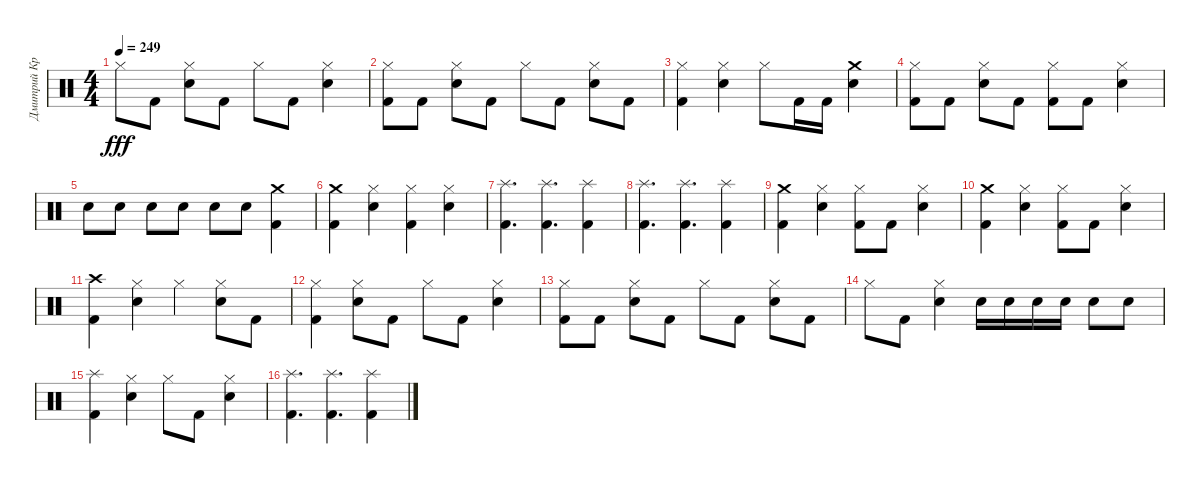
\track ("Дмитрий Кривенков" "Дмитрий Кр") {instrument percussion}
\staff {score}
\articulation defaults
\ts (4 4)
\tempo 249
\clef neutral
\ks c "Hi-Hat (closed)".8{dy fff} "Kick (hit) 2".8
("Electric Snare (hit)" "Hi-Hat (closed)").8 "Kick (hit) 2".8 "Hi-Hat (closed)".8 "Kick (hit) 2".8 ("Electric Snare (hit)" "Hi-Hat (closed)").4 |
("Kick (hit) 2" "Hi-Hat (closed)").8 "Kick (hit) 2".8 ("Electric Snare (hit)" "Hi-Hat (closed)").8 "Kick (hit) 2".8 "Hi-Hat (closed)".8 "Kick (hit) 2".8 ("Electric Snare (hit)" "Hi-Hat (closed)").8 "Kick (hit) 2".8 |
("Kick (hit) 2" "Hi-Hat (closed)").4 ("Electric Snare (hit)" "Hi-Hat (closed)").4 "Hi-Hat (closed)".8 "Kick (hit) 2".16 "Kick (hit) 2".16 ("Electric Snare (hit)" "Crash medium (hit)").4 |
("Kick (hit) 2" "Hi-Hat (closed)").8 "Kick (hit) 2".8 ("Electric Snare (hit)" "Hi-Hat (closed)").8 "Kick (hit) 2".8 ("Kick (hit) 2" "Hi-Hat (closed)").8 "Kick (hit) 2".8 ("Electric Snare (hit)" "Hi-Hat (closed)").4 |
"Electric Snare (hit)".8 "Electric Snare (hit)".8 "Electric Snare (hit)".8 "Electric Snare (hit)".8 "Electric Snare (hit)".8 "Electric Snare (hit)".8 ("Kick (hit) 2" "Crash medium (hit)").4 |
("Kick (hit) 2" "Crash medium (hit)").4 ("Electric Snare (hit)" "Hi-Hat (closed)").4 ("Kick (hit) 2" "Hi-Hat (closed)").4 ("Electric Snare (hit)" "Hi-Hat (closed)").4 |
("Kick (hit) 2" "Splash (hit)").4{d} ("Kick (hit) 2" "Splash (hit)").4{d} ("Kick (hit) 2" "Splash (hit)").4 |
("Kick (hit) 2" "Splash (hit)").4{d} ("Kick (hit) 2" "Splash (hit)").4{d} ("Kick (hit) 2" "Splash (hit)").4 |
("Kick (hit) 2" "Crash medium (hit)").4 ("Electric Snare (hit)" "Hi-Hat (closed)").4 ("Kick (hit) 2" "Hi-Hat (closed)").8 "Kick (hit) 2".8 ("Electric Snare (hit)" "Hi-Hat (closed)").4 |
("Kick (hit) 2" "Crash medium (hit)").4 ("Electric Snare (hit)" "Hi-Hat (closed)").4 ("Kick (hit) 2" "Hi-Hat (closed)").8 "Kick (hit) 2".8 ("Electric Snare (hit)" "Hi-Hat (closed)").4 |
("Kick (hit) 2" "Crash high (hit)").4 ("Electric Snare (hit)" "Hi-Hat (closed)").4 "Hi-Hat (closed)".4 ("Electric Snare (hit)" "Hi-Hat (closed)").8 "Kick (hit) 2".8 |
("Kick (hit) 2" "Hi-Hat (closed)").4 ("Electric Snare (hit)" "Hi-Hat (closed)").8 "Kick (hit) 2".8 "Hi-Hat (closed)".8 "Kick (hit) 2".8 ("Electric Snare (hit)" "Hi-Hat (closed)").4 |
("Kick (hit) 2" "Hi-Hat (closed)").8 "Kick (hit) 2".8 ("Electric Snare (hit)" "Hi-Hat (closed)").8 "Kick (hit) 2".8 "Hi-Hat (closed)".8 "Kick (hit) 2".8 ("Electric Snare (hit)" "Hi-Hat (closed)").8 "Kick (hit) 2".8 |
"Hi-Hat (closed)".8 "Kick (hit) 2".8 ("Electric Snare (hit)" "Hi-Hat (closed)").4 "Electric Snare (hit)".16 "Electric Snare (hit)".16 "Electric Snare (hit)".16 "Electric Snare (hit)".16 "Electric Snare (hit)".8 "Electric Snare (hit)".8 |
("Kick (hit) 2" "Splash (hit)").4 ("Electric Snare (hit)" "Hi-Hat (closed)").4 "Hi-Hat (closed)".8 "Kick (hit) 2".8 ("Electric Snare (hit)" "Hi-Hat (closed)").4 |
("Kick (hit) 2" "Splash (hit)").4{d} ("Kick (hit) 2" "Splash (hit)").4{d} ("Kick (hit) 2" "Splash (hit)").4
